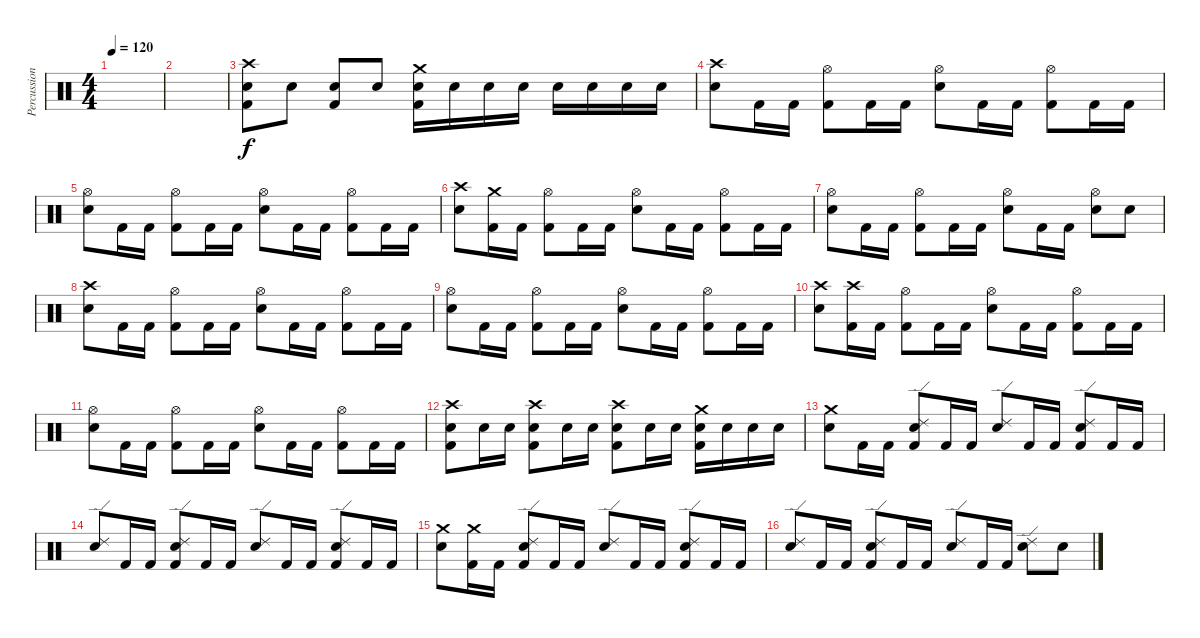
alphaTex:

\track ("Percussion" "Percussion") {instrument percussion}
\staff {score}
\articulation defaults
\ts (4 4)
\tempo 120
\clef neutral
\ks c
|
|
("Crash high (hit)" "Snare (hit) 2" "Kick (hit) 2").8 "Snare (hit) 2".8 ("Snare (hit) 2" "Kick (hit) 2").8 "Snare (hit) 2".8 ("Crash medium (hit)" "Snare (hit) 2" "Kick (hit) 2").16 "Snare (hit) 2".16 "Snare (hit) 2".16 "Snare (hit) 2".16 "Snare (hit) 2".16 "Snare (hit) 2".16 "Snare (hit) 2".16 "Snare (hit) 2".16 |
("Crash high (hit)" "Snare (hit) 2").8 "Kick (hit) 2".16 "Kick (hit) 2".16 ("Hi-Hat (open)" "Kick (hit) 2").8 "Kick (hit) 2".16 "Kick (hit) 2".16 ("Hi-Hat (open)" "Snare (hit) 2").8 "Kick (hit) 2".16 "Kick (hit) 2".16 ("Hi-Hat (open)" "Kick (hit) 2").8 "Kick (hit) 2".16 "Kick (hit) 2".16 |
("Hi-Hat (open)" "Snare (hit) 2").8 "Kick (hit) 2".16 "Kick (hit) 2".16 ("Hi-Hat (open)" "Kick (hit) 2").8 "Kick (hit) 2".16 "Kick (hit) 2".16 ("Hi-Hat (open)" "Snare (hit) 2").8 "Kick (hit) 2".16 "Kick (hit) 2".16 ("Hi-Hat (open)" "Kick (hit) 2").8 "Kick (hit) 2".16 "Kick (hit) 2".16 |
("Crash high (hit)" "Snare (hit) 2").8 ("Crash medium (hit)" "Kick (hit) 2").16 "Kick (hit) 2".16 ("Hi-Hat (open)" "Kick (hit) 2").8 "Kick (hit) 2".16 "Kick (hit) 2".16 ("Hi-Hat (open)" "Snare (hit) 2").8 "Kick (hit) 2".16 "Kick (hit) 2".16 ("Hi-Hat (open)" "Kick (hit) 2").8 "Kick (hit) 2".16 "Kick (hit) 2".16 |
("Hi-Hat (open)" "Snare (hit) 2").8 "Kick (hit) 2".16 "Kick (hit) 2".16 ("Hi-Hat (open)" "Kick (hit) 2").8 "Kick (hit) 2".16 "Kick (hit) 2".16 ("Hi-Hat (open)" "Snare (hit) 2").8 "Kick (hit) 2".16 "Kick (hit) 2".16 ("Hi-Hat (open)" "Snare (hit) 2").8 "Snare (hit) 2".8 |
("Crash high (hit)" "Snare (hit) 2").8 "Kick (hit) 2".16 "Kick (hit) 2".16 ("Hi-Hat (open)" "Kick (hit) 2").8 "Kick (hit) 2".16 "Kick (hit) 2".16 ("Hi-Hat (open)" "Snare (hit) 2").8 "Kick (hit) 2".16 "Kick (hit) 2".16 ("Hi-Hat (open)" "Kick (hit) 2").8 "Kick (hit) 2".16 "Kick (hit) 2".16 |
("Hi-Hat (open)" "Snare (hit) 2").8 "Kick (hit) 2".16 "Kick (hit) 2".16 ("Hi-Hat (open)" "Kick (hit) 2").8 "Kick (hit) 2".16 "Kick (hit) 2".16 ("Hi-Hat (open)" "Snare (hit) 2").8 "Kick (hit) 2".16 "Kick (hit) 2".16 ("Hi-Hat (open)" "Kick (hit) 2").8 "Kick (hit) 2".16 "Kick (hit) 2".16 |
("Crash high (hit)" "Snare (hit) 2").8 ("Crash high (hit)" "Kick (hit) 2").16 "Kick (hit) 2".16 ("Hi-Hat (open)" "Kick (hit) 2").8 "Kick (hit) 2".16 "Kick (hit) 2".16 ("Hi-Hat (open)" "Snare (hit) 2").8 "Kick (hit) 2".16 "Kick (hit) 2".16 ("Hi-Hat (open)" "Kick (hit) 2").8 "Kick (hit) 2".16 "Kick (hit) 2".16 |
("Hi-Hat (open)" "Snare (hit) 2").8 "Kick (hit) 2".16 "Kick (hit) 2".16 ("Hi-Hat (open)" "Kick (hit) 2").8 "Kick (hit) 2".16 "Kick (hit) 2".16 ("Hi-Hat (open)" "Snare (hit) 2").8 "Kick (hit) 2".16 "Kick (hit) 2".16 ("Hi-Hat (open)" "Kick (hit) 2").8 "Kick (hit) 2".16 "Kick (hit) 2".16 |
("Crash high (hit)" "Snare (hit) 2" "Kick (hit) 2").8 "Snare (hit) 2".16 "Snare (hit) 2".16 ("Crash high (hit)" "Snare (hit) 2" "Kick (hit) 2").8 "Snare (hit) 2".16 "Snare (hit) 2".16 ("Crash high (hit)" "Snare (hit) 2" "Kick (hit) 2").8 "Snare (hit) 2".16 "Snare (hit) 2".16 ("Crash medium (hit)" "Snare (hit) 2" "Kick (hit) 2").16 "Snare (hit) 2".16 "Snare (hit) 2".16 "Snare (hit) 2".16 |
("Crash medium (hit)" "Snare (hit) 2").8 "Kick (hit) 2".16 "Kick (hit) 2".16 ("Ride (edge) 2" "Snare (hit) 2" "Kick (hit) 2").8 "Kick (hit) 2".16 "Kick (hit) 2".16 ("Ride (edge) 2" "Snare (hit) 2").8 "Kick (hit) 2".16 "Kick (hit) 2".16 ("Ride (edge) 2" "Snare (hit) 2" "Kick (hit) 2").8 "Kick (hit) 2".16 "Kick (hit) 2".16 |
("Ride (edge) 2" "Snare (hit) 2").8 "Kick (hit) 2".16 "Kick (hit) 2".16 ("Ride (edge) 2" "Snare (hit) 2" "Kick (hit) 2").8 "Kick (hit) 2".16 "Kick (hit) 2".16 ("Ride (edge) 2" "Snare (hit) 2").8 "Kick (hit) 2".16 "Kick (hit) 2".16 ("Ride (edge) 2" "Snare (hit) 2" "Kick (hit) 2").8 "Kick (hit) 2".16 "Kick (hit) 2".16 |
("Crash medium (hit)" "Snare (hit) 2").8 ("Crash medium (hit)" "Kick (hit) 2").16 "Kick (hit) 2".16 ("Ride (edge) 2" "Snare (hit) 2" "Kick (hit) 2").8 "Kick (hit) 2".16 "Kick (hit) 2".16 ("Ride (edge) 2" "Snare (hit) 2").8 "Kick (hit) 2".16 "Kick (hit) 2".16 ("Ride (edge) 2" "Snare (hit) 2" "Kick (hit) 2").8 "Kick (hit) 2".16 "Kick (hit) 2".16 |
("Ride (edge) 2" "Snare (hit) 2").8 "Kick (hit) 2".16 "Kick (hit) 2".16 ("Ride (edge) 2" "Snare (hit) 2" "Kick (hit) 2").8 "Kick (hit) 2".16 "Kick (hit) 2".16 ("Ride (edge) 2" "Snare (hit) 2").8 "Kick (hit) 2".16 "Kick (hit) 2".16 ("Ride (edge) 2" "Snare (hit) 2").8 "Snare (hit) 2".8
